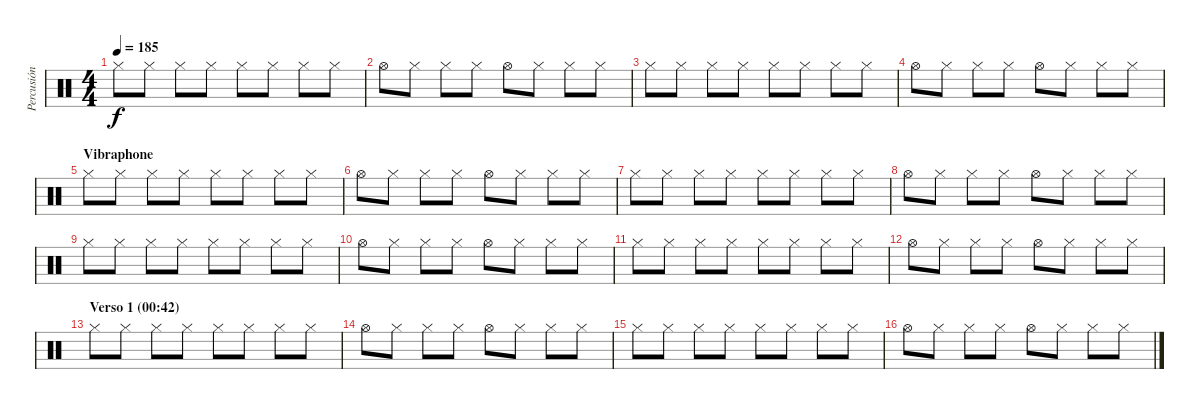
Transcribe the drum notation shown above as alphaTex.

\track ("Percusión" "Percusión") {instrument percussion}
\staff {score}
\articulation defaults
\ts (4 4)
\tempo 185
\clef neutral
\ks c "Hi-Hat (closed)".8{dy f} "Hi-Hat (closed)".8 "Hi-Hat (closed)".8 "Hi-Hat (closed)".8 "Hi-Hat (closed)".8 "Hi-Hat (closed)".8 "Hi-Hat (closed)".8 "Hi-Hat (closed)".8
|
"Hi-Hat (open)".8 "Hi-Hat (closed)".8 "Hi-Hat (closed)".8 "Hi-Hat (closed)".8 "Hi-Hat (open)".8 "Hi-Hat (closed)".8 "Hi-Hat (closed)".8 "Hi-Hat (closed)".8 |
"Hi-Hat (closed)".8 "Hi-Hat (closed)".8 "Hi-Hat (closed)".8 "Hi-Hat (closed)".8 "Hi-Hat (closed)".8 "Hi-Hat (closed)".8 "Hi-Hat (closed)".8 "Hi-Hat (closed)".8 |
"Hi-Hat (open)".8 "Hi-Hat (closed)".8 "Hi-Hat (closed)".8 "Hi-Hat (closed)".8 "Hi-Hat (open)".8 "Hi-Hat (closed)".8 "Hi-Hat (closed)".8 "Hi-Hat (closed)".8 |
\section ("" "Vibraphone")
"Hi-Hat (closed)".8 "Hi-Hat (closed)".8 "Hi-Hat (closed)".8 "Hi-Hat (closed)".8 "Hi-Hat (closed)".8 "Hi-Hat (closed)".8 "Hi-Hat (closed)".8 "Hi-Hat (closed)".8 |
"Hi-Hat (open)".8 "Hi-Hat (closed)".8 "Hi-Hat (closed)".8 "Hi-Hat (closed)".8 "Hi-Hat (open)".8 "Hi-Hat (closed)".8 "Hi-Hat (closed)".8 "Hi-Hat (closed)".8 |
"Hi-Hat (closed)".8 "Hi-Hat (closed)".8 "Hi-Hat (closed)".8 "Hi-Hat (closed)".8 "Hi-Hat (closed)".8 "Hi-Hat (closed)".8 "Hi-Hat (closed)".8 "Hi-Hat (closed)".8 |
"Hi-Hat (open)".8 "Hi-Hat (closed)".8 "Hi-Hat (closed)".8 "Hi-Hat (closed)".8 "Hi-Hat (open)".8 "Hi-Hat (closed)".8 "Hi-Hat (closed)".8 "Hi-Hat (closed)".8 |
"Hi-Hat (closed)".8 "Hi-Hat (closed)".8 "Hi-Hat (closed)".8 "Hi-Hat (closed)".8 "Hi-Hat (closed)".8 "Hi-Hat (closed)".8 "Hi-Hat (closed)".8 "Hi-Hat (closed)".8 |
"Hi-Hat (open)".8 "Hi-Hat (closed)".8 "Hi-Hat (closed)".8 "Hi-Hat (closed)".8 "Hi-Hat (open)".8 "Hi-Hat (closed)".8 "Hi-Hat (closed)".8 "Hi-Hat (closed)".8 |
"Hi-Hat (closed)".8 "Hi-Hat (closed)".8 "Hi-Hat (closed)".8 "Hi-Hat (closed)".8 "Hi-Hat (closed)".8 "Hi-Hat (closed)".8 "Hi-Hat (closed)".8 "Hi-Hat (closed)".8 |
"Hi-Hat (open)".8 "Hi-Hat (closed)".8 "Hi-Hat (closed)".8 "Hi-Hat (closed)".8 "Hi-Hat (open)".8 "Hi-Hat (closed)".8 "Hi-Hat (closed)".8 "Hi-Hat (closed)".8 |
\section ("" "Verso 1 (00:42)")
"Hi-Hat (closed)".8 "Hi-Hat (closed)".8 "Hi-Hat (closed)".8 "Hi-Hat (closed)".8 "Hi-Hat (closed)".8 "Hi-Hat (closed)".8 "Hi-Hat (closed)".8 "Hi-Hat (closed)".8 |
"Hi-Hat (open)".8 "Hi-Hat (closed)".8 "Hi-Hat (closed)".8 "Hi-Hat (closed)".8 "Hi-Hat (open)".8 "Hi-Hat (closed)".8 "Hi-Hat (closed)".8 "Hi-Hat (closed)".8 |
"Hi-Hat (closed)".8 "Hi-Hat (closed)".8 "Hi-Hat (closed)".8 "Hi-Hat (closed)".8 "Hi-Hat (closed)".8 "Hi-Hat (closed)".8 "Hi-Hat (closed)".8 "Hi-Hat (closed)".8 |
"Hi-Hat (open)".8 "Hi-Hat (closed)".8 "Hi-Hat (closed)".8 "Hi-Hat (closed)".8 "Hi-Hat (open)".8 "Hi-Hat (closed)".8 "Hi-Hat (closed)".8 "Hi-Hat (closed)".8
